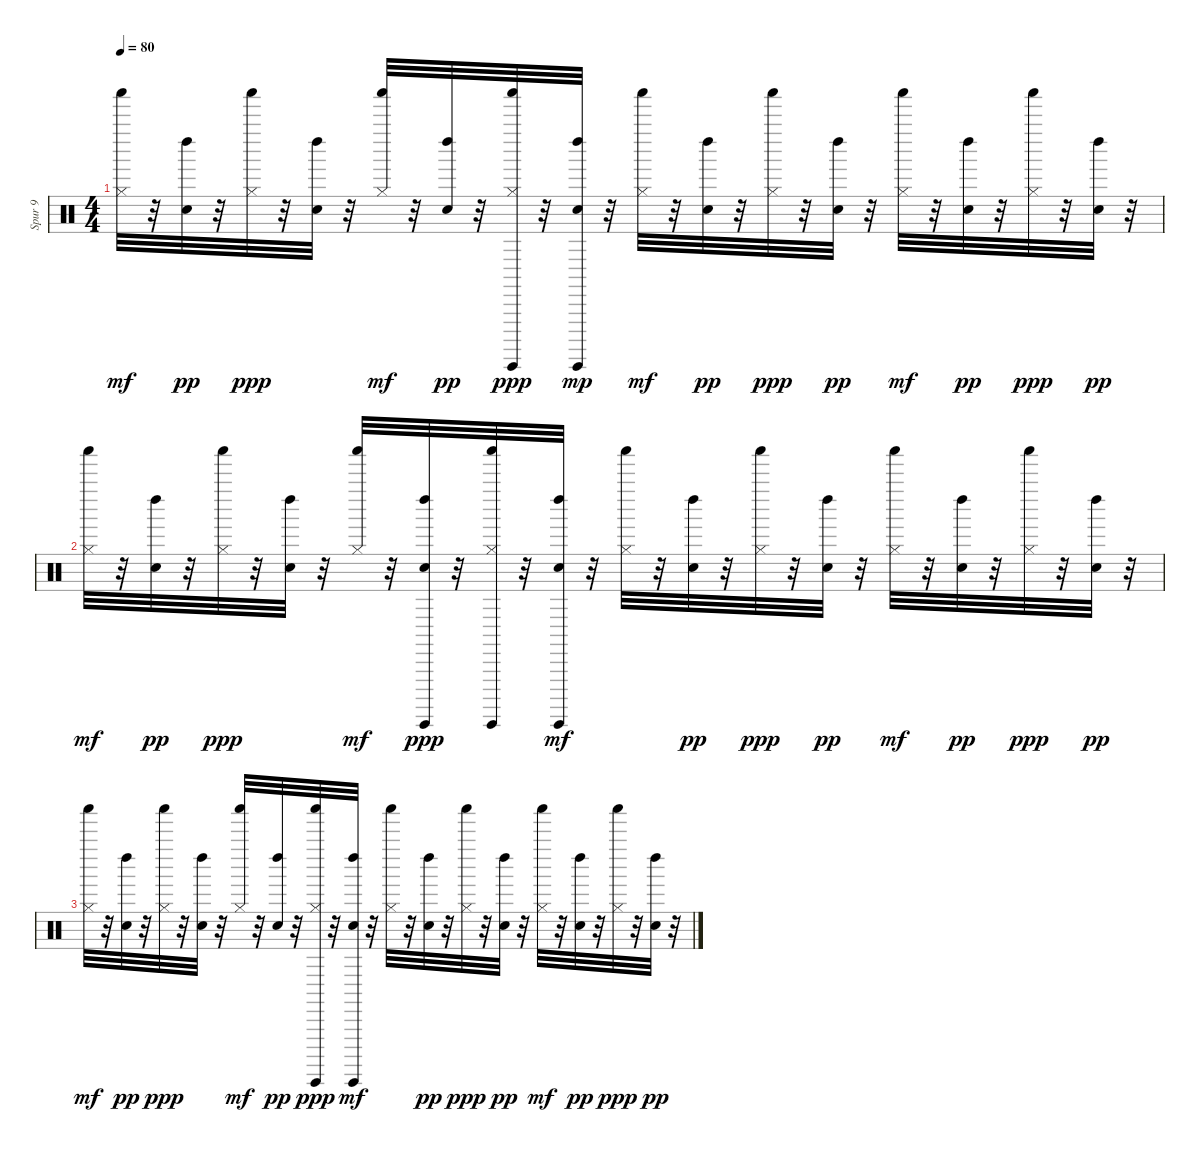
\track ("Spur 9" "Spur 9") {instrument percussion}
\staff {score}
\articulation defaults
\ts (4 4)
\tempo 80
\clef neutral
\ks c
("Hi-Hat (closed)" "Shaker (hit)").32{dy mf} r.32 ("Snare (hit)" "Left Maraca (hit)").32{dy pp} r.32 ("Hi-Hat (closed)" "Shaker (hit)").32{dy ppp} r.32 ("Snare (hit)" "Left Maraca (hit)").32 r.32 ("Hi-Hat (closed)" "Shaker (hit)").32{dy mf} r.32 ("Snare (hit)" "Left Maraca (hit)").32{dy pp} r.32 ("Hi-Hat (closed)" "Guiro (hit)" "Shaker (hit)").32{dy ppp} r.32 ("Snare (hit)" "Left Maraca (hit)" "Guiro (hit)").32{dy mp} r.32 ("Hi-Hat (closed)" "Shaker (hit)").32{dy mf} r.32 ("Snare (hit)" "Left Maraca (hit)").32{dy pp} r.32 ("Hi-Hat (closed)" "Shaker (hit)").32{dy ppp} r.32 ("Snare (hit)" "Left Maraca (hit)").32{dy pp} r.32 ("Hi-Hat (closed)" "Shaker (hit)").32{dy mf} r.32 ("Snare (hit)" "Left Maraca (hit)").32{dy pp} r.32 ("Hi-Hat (closed)" "Shaker (hit)").32{dy ppp} r.32 ("Snare (hit)" "Left Maraca (hit)").32{dy pp} r.32 |
("Hi-Hat (closed)" "Shaker (hit)").32{dy mf} r.32 ("Snare (hit)" "Left Maraca (hit)").32{dy pp} r.32 ("Hi-Hat (closed)" "Shaker (hit)").32{dy ppp} r.32 ("Snare (hit)" "Left Maraca (hit)").32 r.32 ("Hi-Hat (closed)" "Shaker (hit)").32{dy mf} r.32 ("Snare (hit)" "Left Maraca (hit)" "Guiro (hit)").32{dy ppp} r.32 ("Hi-Hat (closed)" "Guiro (hit)" "Shaker (hit)").32 r.32 ("Snare (hit)" "Left Maraca (hit)" "Guiro (hit)").32{dy mf} r.32 ("Hi-Hat (closed)" "Shaker (hit)").32 r.32 ("Snare (hit)" "Left Maraca (hit)").32{dy pp} r.32 ("Hi-Hat (closed)" "Shaker (hit)").32{dy ppp} r.32 ("Snare (hit)" "Left Maraca (hit)").32{dy pp} r.32 ("Hi-Hat (closed)" "Shaker (hit)").32{dy mf} r.32 ("Snare (hit)" "Left Maraca (hit)").32{dy pp} r.32 ("Hi-Hat (closed)" "Shaker (hit)").32{dy ppp} r.32 ("Snare (hit)" "Left Maraca (hit)").32{dy pp} r.32 |
("Hi-Hat (closed)" "Shaker (hit)").32{dy mf} r.32 ("Snare (hit)" "Left Maraca (hit)").32{dy pp} r.32 ("Hi-Hat (closed)" "Shaker (hit)").32{dy ppp} r.32 ("Snare (hit)" "Left Maraca (hit)").32 r.32 ("Hi-Hat (closed)" "Shaker (hit)").32{dy mf} r.32 ("Snare (hit)" "Left Maraca (hit)").32{dy pp} r.32 ("Hi-Hat (closed)" "Guiro (hit)" "Shaker (hit)").32{dy ppp} r.32 ("Snare (hit)" "Left Maraca (hit)" "Guiro (hit)").32{dy mf} r.32 ("Hi-Hat (closed)" "Shaker (hit)").32 r.32 ("Snare (hit)" "Left Maraca (hit)").32{dy pp} r.32 ("Hi-Hat (closed)" "Shaker (hit)").32{dy ppp} r.32 ("Snare (hit)" "Left Maraca (hit)").32{dy pp} r.32 ("Hi-Hat (closed)" "Shaker (hit)").32{dy mf} r.32 ("Snare (hit)" "Left Maraca (hit)").32{dy pp} r.32 ("Hi-Hat (closed)" "Shaker (hit)").32{dy ppp} r.32 ("Snare (hit)" "Left Maraca (hit)").32{dy pp} r.32
